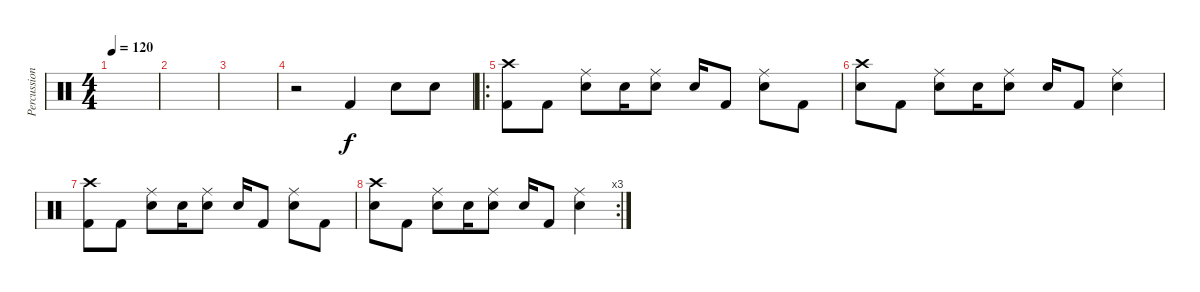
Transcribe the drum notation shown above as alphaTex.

\track ("Percussion" "Percussion") {instrument percussion}
\staff {score}
\articulation defaults
\ts (4 4)
\tempo 120
\clef neutral
\ks c
|
|
|
r.2 "Kick (hit) 2".4 "Snare (hit) 2".8 "Snare (hit) 2".8 |
\ro
("Crash high (hit)" "Kick (hit) 2").8 "Kick (hit) 2".8 ("Ride (middle)" "Snare (hit) 2").8 "Snare (hit) 2".16 ("Ride (middle)" "Snare (hit) 2").8 "Snare (hit) 2".16 "Kick (hit) 2".8 ("Ride (middle)" "Snare (hit) 2").8 "Kick (hit) 2".8 |
("Crash high (hit)" "Snare (hit) 2").8 "Kick (hit) 2".8 ("Ride (middle)" "Snare (hit) 2").8 "Snare (hit) 2".16 ("Ride (middle)" "Snare (hit) 2").8 "Snare (hit) 2".16 "Kick (hit) 2".8 ("Ride (middle)" "Snare (hit) 2").4 |
("Crash high (hit)" "Kick (hit) 2").8 "Kick (hit) 2".8 ("Ride (middle)" "Snare (hit) 2").8 "Snare (hit) 2".16 ("Ride (middle)" "Snare (hit) 2").8 "Snare (hit) 2".16 "Kick (hit) 2".8 ("Ride (middle)" "Snare (hit) 2").8 "Kick (hit) 2".8 |
\rc 3
("Crash high (hit)" "Snare (hit) 2").8 "Kick (hit) 2".8 ("Ride (middle)" "Snare (hit) 2").8 "Snare (hit) 2".16 ("Ride (middle)" "Snare (hit) 2").8 "Snare (hit) 2".16 "Kick (hit) 2".8 ("Ride (middle)" "Snare (hit) 2").4
